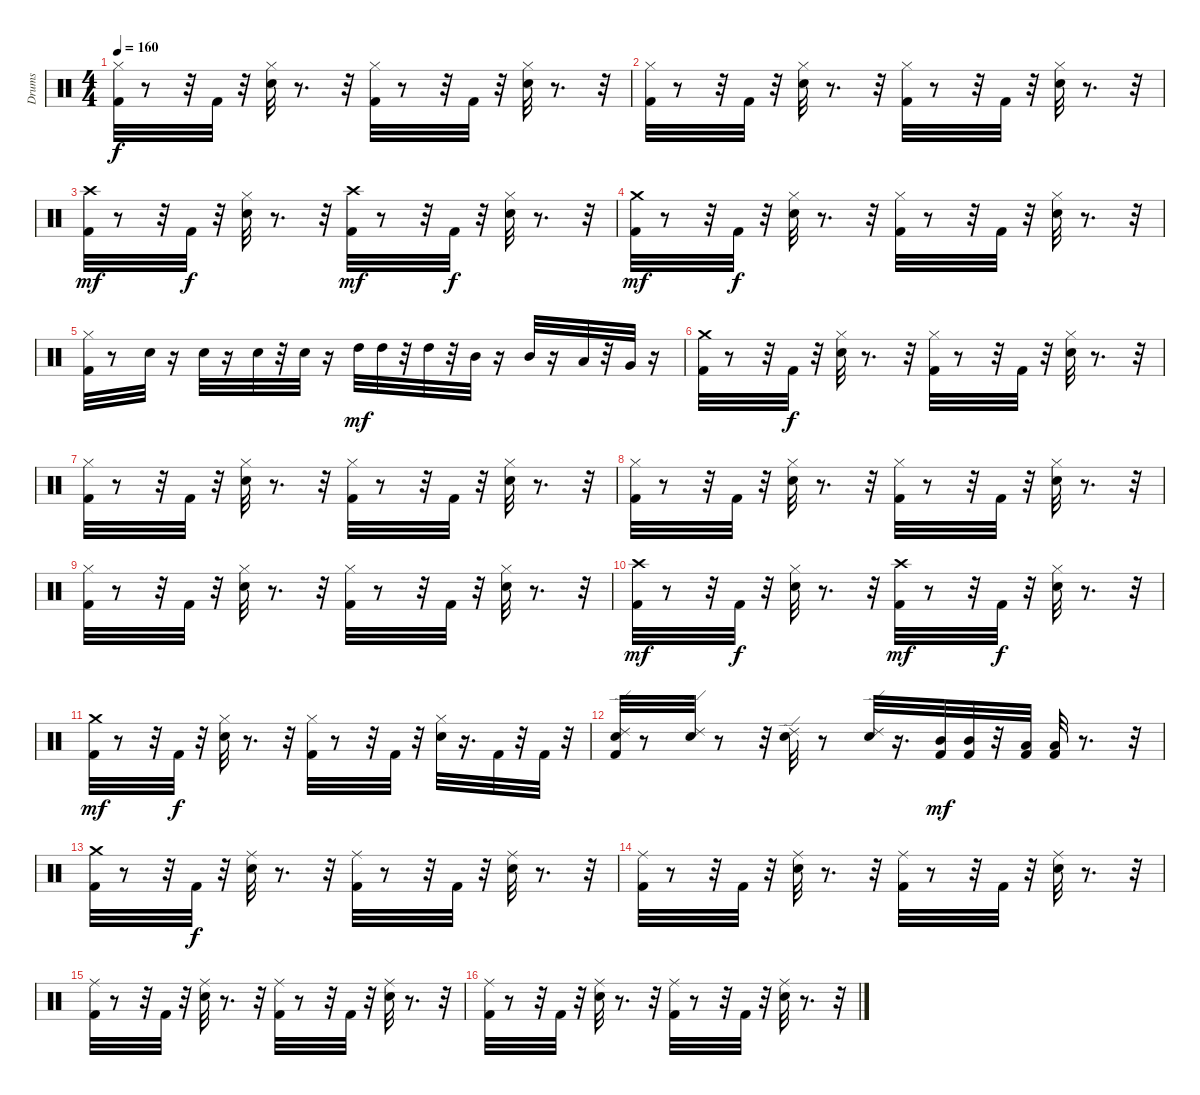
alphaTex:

\track ("Drums" "Drums") {instrument percussion}
\staff {score}
\articulation defaults
\ts (4 4)
\tempo 160
\clef neutral
\ks c
("Kick (hit) 2" "Hi-Hat (closed)").32{dy f} r.8 r.32 "Kick (hit) 2".32 r.32 ("Snare (hit) 2" "Hi-Hat (closed)").32 r.8{d} r.32 ("Kick (hit) 2" "Hi-Hat (closed)").32 r.8 r.32 "Kick (hit) 2".32 r.32 ("Snare (hit) 2" "Hi-Hat (closed)").32 r.8{d} r.32 |
("Kick (hit) 2" "Hi-Hat (closed)").32 r.8 r.32 "Kick (hit) 2".32 r.32 ("Snare (hit) 2" "Hi-Hat (closed)").32 r.8{d} r.32 ("Kick (hit) 2" "Hi-Hat (closed)").32 r.8 r.32 "Kick (hit) 2".32 r.32 ("Snare (hit) 2" "Hi-Hat (closed)").32 r.8{d} r.32 |
("Kick (hit) 2" "Crash high (hit)").32{dy mf} r.8 r.32 "Kick (hit) 2".32{dy f} r.32 ("Snare (hit) 2" "Hi-Hat (closed)").32 r.8{d} r.32 ("Kick (hit) 2" "Crash high (hit)").32{dy mf} r.8 r.32 "Kick (hit) 2".32{dy f} r.32 ("Snare (hit) 2" "Hi-Hat (closed)").32 r.8{d} r.32 |
("Kick (hit) 2" "Crash medium (hit)").32{dy mf} r.8 r.32 "Kick (hit) 2".32{dy f} r.32 ("Snare (hit) 2" "Hi-Hat (closed)").32 r.8{d} r.32 ("Kick (hit) 2" "Hi-Hat (closed)").32 r.8 r.32 "Kick (hit) 2".32 r.32 ("Snare (hit) 2" "Hi-Hat (closed)").32 r.8{d} r.32 |
("Kick (hit) 2" "Hi-Hat (closed)").32 r.8 "Snare (hit) 2".32 r.16 "Snare (hit) 2".32 r.16 "Snare (hit) 2".32 r.32 "Snare (hit) 2".32 r.16 "High Tom (hit)".32{dy mf} "High Tom (hit)".32 r.32 "High Tom (hit)".32 r.32 "Mid Tom (hit)".32 r.16 "Mid Tom (hit)".32 r.16 "Low Tom (hit)".32 r.32 "Very Low Tom (hit)".32 r.16 |
("Kick (hit) 2" "Crash medium (hit)").32 r.8 r.32 "Kick (hit) 2".32{dy f} r.32 ("Snare (hit) 2" "Hi-Hat (closed)").32 r.8{d} r.32 ("Kick (hit) 2" "Hi-Hat (closed)").32 r.8 r.32 "Kick (hit) 2".32 r.32 ("Snare (hit) 2" "Hi-Hat (closed)").32 r.8{d} r.32 |
("Kick (hit) 2" "Hi-Hat (closed)").32 r.8 r.32 "Kick (hit) 2".32 r.32 ("Snare (hit) 2" "Hi-Hat (closed)").32 r.8{d} r.32 ("Kick (hit) 2" "Hi-Hat (closed)").32 r.8 r.32 "Kick (hit) 2".32 r.32 ("Snare (hit) 2" "Hi-Hat (closed)").32 r.8{d} r.32 |
("Kick (hit) 2" "Hi-Hat (closed)").32 r.8 r.32 "Kick (hit) 2".32 r.32 ("Snare (hit) 2" "Hi-Hat (closed)").32 r.8{d} r.32 ("Kick (hit) 2" "Hi-Hat (closed)").32 r.8 r.32 "Kick (hit) 2".32 r.32 ("Snare (hit) 2" "Hi-Hat (closed)").32 r.8{d} r.32 |
("Kick (hit) 2" "Hi-Hat (closed)").32 r.8 r.32 "Kick (hit) 2".32 r.32 ("Snare (hit) 2" "Hi-Hat (closed)").32 r.8{d} r.32 ("Kick (hit) 2" "Hi-Hat (closed)").32 r.8 r.32 "Kick (hit) 2".32 r.32 ("Snare (hit) 2" "Hi-Hat (closed)").32 r.8{d} r.32 |
("Kick (hit) 2" "Crash high (hit)").32{dy mf} r.8 r.32 "Kick (hit) 2".32{dy f} r.32 ("Snare (hit) 2" "Hi-Hat (closed)").32 r.8{d} r.32 ("Kick (hit) 2" "Crash high (hit)").32{dy mf} r.8 r.32 "Kick (hit) 2".32{dy f} r.32 ("Snare (hit) 2" "Hi-Hat (closed)").32 r.8{d} r.32 |
("Kick (hit) 2" "Crash medium (hit)").32{dy mf} r.8 r.32 "Kick (hit) 2".32{dy f} r.32 ("Snare (hit) 2" "Hi-Hat (closed)").32 r.8{d} r.32 ("Kick (hit) 2" "Hi-Hat (closed)").32 r.8 r.32 "Kick (hit) 2".32 r.32 ("Snare (hit) 2" "Hi-Hat (closed)").32 r.16{d} "Kick (hit) 2".32 r.32 "Kick (hit) 2".32 r.32 |
("Kick (hit) 2" "Snare (hit) 2" "Ride (edge) 2").32 r.8 ("Snare (hit) 2" "Ride (edge) 2").32 r.8 r.32 ("Snare (hit) 2" "Ride (edge) 2").32 r.8 ("Snare (hit) 2" "Ride (edge) 2").32 r.16{d} ("Kick (hit) 2" "Mid Tom (hit)").32{dy mf} ("Kick (hit) 2" "Mid Tom (hit)").32 r.32 ("Kick (hit) 2" "Low Tom (hit)").32 ("Kick (hit) 2" "Low Floor Tom (hit)").32 r.8{d} r.32 |
("Kick (hit) 2" "Crash medium (hit)").32 r.8 r.32 "Kick (hit) 2".32{dy f} r.32 ("Snare (hit) 2" "Ride (middle)").32 r.8{d} r.32 ("Kick (hit) 2" "Ride (middle)").32 r.8 r.32 "Kick (hit) 2".32 r.32 ("Snare (hit) 2" "Ride (middle)").32 r.8{d} r.32 |
("Kick (hit) 2" "Ride (middle)").32 r.8 r.32 "Kick (hit) 2".32 r.32 ("Snare (hit) 2" "Ride (middle)").32 r.8{d} r.32 ("Kick (hit) 2" "Ride (middle)").32 r.8 r.32 "Kick (hit) 2".32 r.32 ("Snare (hit) 2" "Ride (middle)").32 r.8{d} r.32 |
("Kick (hit) 2" "Ride (middle)").32 r.8 r.32 "Kick (hit) 2".32 r.32 ("Snare (hit) 2" "Ride (middle)").32 r.8{d} r.32 ("Kick (hit) 2" "Ride (middle)").32 r.8 r.32 "Kick (hit) 2".32 r.32 ("Snare (hit) 2" "Ride (middle)").32 r.8{d} r.32 |
("Kick (hit) 2" "Ride (middle)").32 r.8 r.32 "Kick (hit) 2".32 r.32 ("Snare (hit) 2" "Ride (middle)").32 r.8{d} r.32 ("Kick (hit) 2" "Ride (middle)").32 r.8 r.32 "Kick (hit) 2".32 r.32 ("Snare (hit) 2" "Ride (middle)").32 r.8{d} r.32
